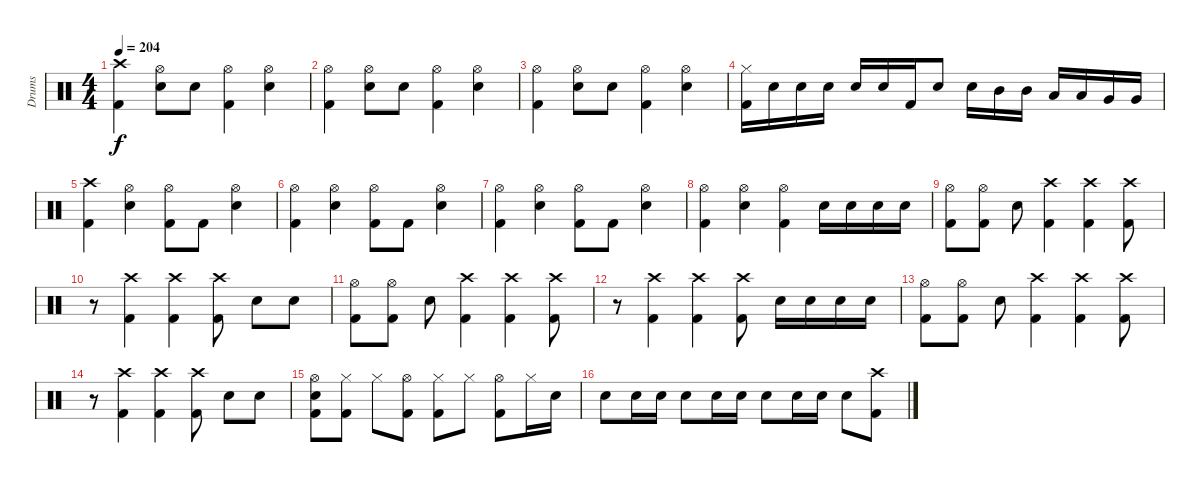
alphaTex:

\track ("Drums" "Drums") {instrument percussion}
\staff {score}
\articulation defaults
\ts (4 4)
\tempo 204
\clef neutral
\ks c
("Crash high (hit)" "Kick (hit) 2").4{dy f} ("Hi-Hat (open)" "Electric Snare (hit)").8 "Electric Snare (hit)".8 ("Hi-Hat (open)" "Kick (hit) 2").4 ("Hi-Hat (open)" "Electric Snare (hit)").4 |
("Hi-Hat (open)" "Kick (hit) 2").4 ("Hi-Hat (open)" "Electric Snare (hit)").8 "Electric Snare (hit)".8 ("Hi-Hat (open)" "Kick (hit) 2").4 ("Hi-Hat (open)" "Electric Snare (hit)").4 |
("Hi-Hat (open)" "Kick (hit) 2").4 ("Hi-Hat (open)" "Electric Snare (hit)").8 "Electric Snare (hit)".8 ("Hi-Hat (open)" "Kick (hit) 2").4 ("Hi-Hat (open)" "Electric Snare (hit)").4 |
("Kick (hit) 2" "Hi-Hat (closed)").16 "Electric Snare (hit)".16 "Electric Snare (hit)".16 "Electric Snare (hit)".16 "Electric Snare (hit)".16 "Electric Snare (hit)".16 "Kick (hit) 2".16 "Electric Snare (hit)".8 "Electric Snare (hit)".16 "Mid Tom (hit)".16 "Mid Tom (hit)".16 "Low Tom (hit)".16 "Low Tom (hit)".16 "Very Low Tom (hit)".16 "Very Low Tom (hit)".16 |
("Crash high (hit)" "Kick (hit) 2").4 ("Hi-Hat (open)" "Electric Snare (hit)").4 ("Hi-Hat (open)" "Kick (hit) 2").8 "Kick (hit) 2".8 ("Hi-Hat (open)" "Electric Snare (hit)").4 |
("Hi-Hat (open)" "Kick (hit) 2").4 ("Hi-Hat (open)" "Electric Snare (hit)").4 ("Hi-Hat (open)" "Kick (hit) 2").8 "Kick (hit) 2".8 ("Hi-Hat (open)" "Electric Snare (hit)").4 |
("Hi-Hat (open)" "Kick (hit) 2").4 ("Hi-Hat (open)" "Electric Snare (hit)").4 ("Hi-Hat (open)" "Kick (hit) 2").8 "Kick (hit) 2".8 ("Hi-Hat (open)" "Electric Snare (hit)").4 |
("Hi-Hat (open)" "Kick (hit) 2").4 ("Hi-Hat (open)" "Electric Snare (hit)").4 ("Hi-Hat (open)" "Kick (hit) 2").4 "Electric Snare (hit)".16 "Electric Snare (hit)".16 "Electric Snare (hit)".16 "Electric Snare (hit)".16 |
("Kick (hit) 2" "Hi-Hat (open)").8 ("Kick (hit) 2" "Hi-Hat (open)").8 "Electric Snare (hit)".8 ("Kick (hit) 2" "Crash high (hit)").4 ("Kick (hit) 2" "Crash high (hit)").4 ("Kick (hit) 2" "Crash high (hit)").8 |
r.8 ("Kick (hit) 2" "Crash high (hit)").4 ("Kick (hit) 2" "Crash high (hit)").4 ("Kick (hit) 2" "Crash high (hit)").8 "Electric Snare (hit)".8 "Electric Snare (hit)".8 |
("Kick (hit) 2" "Hi-Hat (open)").8 ("Kick (hit) 2" "Hi-Hat (open)").8 "Electric Snare (hit)".8 ("Kick (hit) 2" "Crash high (hit)").4 ("Kick (hit) 2" "Crash high (hit)").4 ("Kick (hit) 2" "Crash high (hit)").8 |
r.8 ("Kick (hit) 2" "Crash high (hit)").4 ("Kick (hit) 2" "Crash high (hit)").4 ("Kick (hit) 2" "Crash high (hit)").8 "Electric Snare (hit)".16 "Electric Snare (hit)".16 "Electric Snare (hit)".16 "Electric Snare (hit)".16 |
("Kick (hit) 2" "Hi-Hat (open)").8 ("Kick (hit) 2" "Hi-Hat (open)").8 "Electric Snare (hit)".8 ("Kick (hit) 2" "Crash high (hit)").4 ("Kick (hit) 2" "Crash high (hit)").4 ("Kick (hit) 2" "Crash high (hit)").8 |
r.8 ("Kick (hit) 2" "Crash high (hit)").4 ("Kick (hit) 2" "Crash high (hit)").4 ("Kick (hit) 2" "Crash high (hit)").8 "Electric Snare (hit)".8 "Electric Snare (hit)".8 |
("Hi-Hat (open)" "Kick (hit) 2" "Electric Snare (hit)").8 ("Hi-Hat (closed)" "Kick (hit) 2").8 "Hi-Hat (closed)".8 ("Hi-Hat (open)" "Kick (hit) 2").8 ("Hi-Hat (closed)" "Kick (hit) 2").8 "Hi-Hat (closed)".8 ("Hi-Hat (open)" "Kick (hit) 2").8 "Hi-Hat (closed)".16 "Electric Snare (hit)".16 |
"Electric Snare (hit)".8 "Electric Snare (hit)".16 "Electric Snare (hit)".16 "Electric Snare (hit)".8 "Electric Snare (hit)".16 "Electric Snare (hit)".16 "Electric Snare (hit)".8 "Electric Snare (hit)".16 "Electric Snare (hit)".16 "Electric Snare (hit)".8 ("Kick (hit) 2" "Crash high (hit)").8
